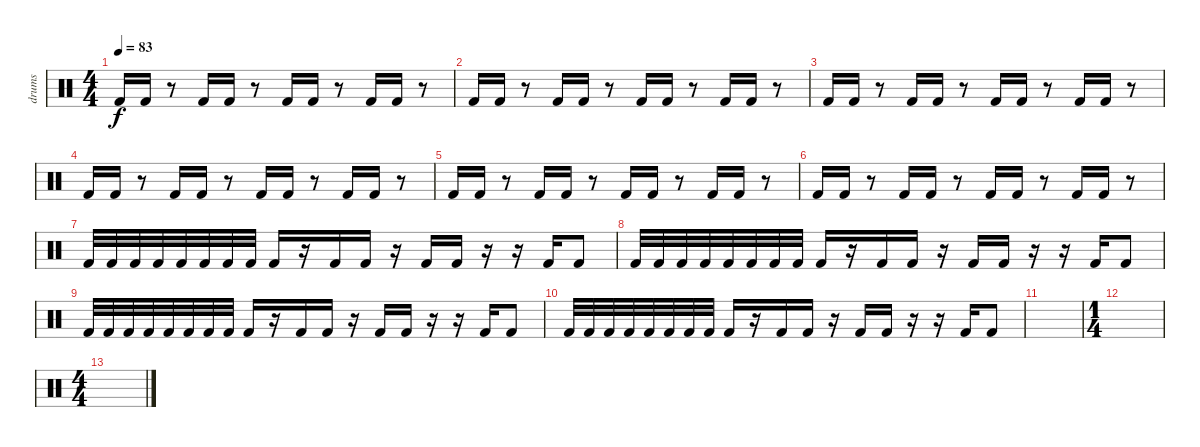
\track ("drums" "drums") {instrument percussion}
\staff {score}
\articulation defaults
\ts (4 4)
\tempo 83
\clef neutral
\ks c "Kick (hit) 2".16{dy f} "Kick (hit) 2".16
r.8 "Kick (hit) 2".16 "Kick (hit) 2".16 r.8 "Kick (hit) 2".16 "Kick (hit) 2".16 r.8 "Kick (hit) 2".16 "Kick (hit) 2".16 r.8 |
"Kick (hit) 2".16 "Kick (hit) 2".16 r.8 "Kick (hit) 2".16 "Kick (hit) 2".16 r.8 "Kick (hit) 2".16 "Kick (hit) 2".16 r.8 "Kick (hit) 2".16 "Kick (hit) 2".16 r.8 |
"Kick (hit) 2".16 "Kick (hit) 2".16 r.8 "Kick (hit) 2".16 "Kick (hit) 2".16 r.8 "Kick (hit) 2".16 "Kick (hit) 2".16 r.8 "Kick (hit) 2".16 "Kick (hit) 2".16 r.8 |
"Kick (hit) 2".16 "Kick (hit) 2".16 r.8 "Kick (hit) 2".16 "Kick (hit) 2".16 r.8 "Kick (hit) 2".16 "Kick (hit) 2".16 r.8 "Kick (hit) 2".16 "Kick (hit) 2".16 r.8 |
"Kick (hit) 2".16 "Kick (hit) 2".16 r.8 "Kick (hit) 2".16 "Kick (hit) 2".16 r.8 "Kick (hit) 2".16 "Kick (hit) 2".16 r.8 "Kick (hit) 2".16 "Kick (hit) 2".16 r.8 |
"Kick (hit) 2".16 "Kick (hit) 2".16 r.8 "Kick (hit) 2".16 "Kick (hit) 2".16 r.8 "Kick (hit) 2".16 "Kick (hit) 2".16 r.8 "Kick (hit) 2".16 "Kick (hit) 2".16 r.8 |
"Kick (hit) 2".32 "Kick (hit) 2".32 "Kick (hit) 2".32 "Kick (hit) 2".32 "Kick (hit) 2".32 "Kick (hit) 2".32 "Kick (hit) 2".32 "Kick (hit) 2".32 "Kick (hit) 2".16 r.16 "Kick (hit) 2".16 "Kick (hit) 2".16 r.16 "Kick (hit) 2".16 "Kick (hit) 2".16 r.16 r.16 "Kick (hit) 2".16 "Kick (hit) 2".8 |
"Kick (hit) 2".32 "Kick (hit) 2".32 "Kick (hit) 2".32 "Kick (hit) 2".32 "Kick (hit) 2".32 "Kick (hit) 2".32 "Kick (hit) 2".32 "Kick (hit) 2".32 "Kick (hit) 2".16 r.16 "Kick (hit) 2".16 "Kick (hit) 2".16 r.16 "Kick (hit) 2".16 "Kick (hit) 2".16 r.16 r.16 "Kick (hit) 2".16 "Kick (hit) 2".8 |
"Kick (hit) 2".32 "Kick (hit) 2".32 "Kick (hit) 2".32 "Kick (hit) 2".32 "Kick (hit) 2".32 "Kick (hit) 2".32 "Kick (hit) 2".32 "Kick (hit) 2".32 "Kick (hit) 2".16 r.16 "Kick (hit) 2".16 "Kick (hit) 2".16 r.16 "Kick (hit) 2".16 "Kick (hit) 2".16 r.16 r.16 "Kick (hit) 2".16 "Kick (hit) 2".8 |
"Kick (hit) 2".32 "Kick (hit) 2".32 "Kick (hit) 2".32 "Kick (hit) 2".32 "Kick (hit) 2".32 "Kick (hit) 2".32 "Kick (hit) 2".32 "Kick (hit) 2".32 "Kick (hit) 2".16 r.16 "Kick (hit) 2".16 "Kick (hit) 2".16 r.16 "Kick (hit) 2".16 "Kick (hit) 2".16 r.16 r.16 "Kick (hit) 2".16 "Kick (hit) 2".8 |
|
\ts (1 4)
|
\ts (4 4)
